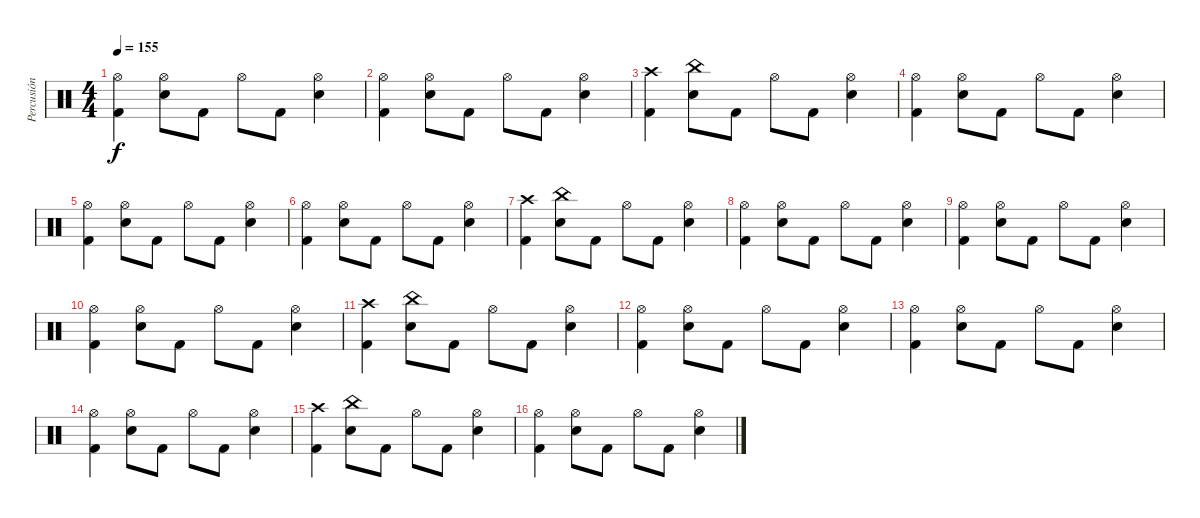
\track ("Percusión" "Percusión") {instrument percussion}
\staff {score}
\articulation defaults
\ts (4 4)
\tempo 155
\clef neutral
\ks c
("Hi-Hat (open)" "Kick (hit) 2").4{dy f} ("Hi-Hat (open)" "Electric Snare (hit)").8 "Kick (hit) 2".8 "Hi-Hat (open)".8 "Kick (hit) 2".8 ("Hi-Hat (open)" "Electric Snare (hit)").4 |
("Hi-Hat (open)" "Kick (hit) 2").4 ("Hi-Hat (open)" "Electric Snare (hit)").8 "Kick (hit) 2".8 "Hi-Hat (open)".8 "Kick (hit) 2".8 ("Hi-Hat (open)" "Electric Snare (hit)").4 |
("Crash high (hit)" "Kick (hit) 2").4 ("China (hit)" "Electric Snare (hit)").8 "Kick (hit) 2".8 "Hi-Hat (open)".8 "Kick (hit) 2".8 ("Hi-Hat (open)" "Electric Snare (hit)").4 |
("Hi-Hat (open)" "Kick (hit) 2").4 ("Hi-Hat (open)" "Electric Snare (hit)").8 "Kick (hit) 2".8 "Hi-Hat (open)".8 "Kick (hit) 2".8 ("Hi-Hat (open)" "Electric Snare (hit)").4 |
("Hi-Hat (open)" "Kick (hit) 2").4 ("Hi-Hat (open)" "Electric Snare (hit)").8 "Kick (hit) 2".8 "Hi-Hat (open)".8 "Kick (hit) 2".8 ("Hi-Hat (open)" "Electric Snare (hit)").4 |
("Hi-Hat (open)" "Kick (hit) 2").4 ("Hi-Hat (open)" "Electric Snare (hit)").8 "Kick (hit) 2".8 "Hi-Hat (open)".8 "Kick (hit) 2".8 ("Hi-Hat (open)" "Electric Snare (hit)").4 |
("Crash high (hit)" "Kick (hit) 2").4 ("China (hit)" "Electric Snare (hit)").8 "Kick (hit) 2".8 "Hi-Hat (open)".8 "Kick (hit) 2".8 ("Hi-Hat (open)" "Electric Snare (hit)").4 |
("Hi-Hat (open)" "Kick (hit) 2").4 ("Hi-Hat (open)" "Electric Snare (hit)").8 "Kick (hit) 2".8 "Hi-Hat (open)".8 "Kick (hit) 2".8 ("Hi-Hat (open)" "Electric Snare (hit)").4 |
("Hi-Hat (open)" "Kick (hit) 2").4 ("Hi-Hat (open)" "Electric Snare (hit)").8 "Kick (hit) 2".8 "Hi-Hat (open)".8 "Kick (hit) 2".8 ("Hi-Hat (open)" "Electric Snare (hit)").4 |
("Hi-Hat (open)" "Kick (hit) 2").4 ("Hi-Hat (open)" "Electric Snare (hit)").8 "Kick (hit) 2".8 "Hi-Hat (open)".8 "Kick (hit) 2".8 ("Hi-Hat (open)" "Electric Snare (hit)").4 |
("Crash high (hit)" "Kick (hit) 2").4 ("China (hit)" "Electric Snare (hit)").8 "Kick (hit) 2".8 "Hi-Hat (open)".8 "Kick (hit) 2".8 ("Hi-Hat (open)" "Electric Snare (hit)").4 |
("Hi-Hat (open)" "Kick (hit) 2").4 ("Hi-Hat (open)" "Electric Snare (hit)").8 "Kick (hit) 2".8 "Hi-Hat (open)".8 "Kick (hit) 2".8 ("Hi-Hat (open)" "Electric Snare (hit)").4 |
("Hi-Hat (open)" "Kick (hit) 2").4 ("Hi-Hat (open)" "Electric Snare (hit)").8 "Kick (hit) 2".8 "Hi-Hat (open)".8 "Kick (hit) 2".8 ("Hi-Hat (open)" "Electric Snare (hit)").4 |
("Hi-Hat (open)" "Kick (hit) 2").4 ("Hi-Hat (open)" "Electric Snare (hit)").8 "Kick (hit) 2".8 "Hi-Hat (open)".8 "Kick (hit) 2".8 ("Hi-Hat (open)" "Electric Snare (hit)").4 |
("Crash high (hit)" "Kick (hit) 2").4 ("China (hit)" "Electric Snare (hit)").8 "Kick (hit) 2".8 "Hi-Hat (open)".8 "Kick (hit) 2".8 ("Hi-Hat (open)" "Electric Snare (hit)").4 |
("Hi-Hat (open)" "Kick (hit) 2").4 ("Hi-Hat (open)" "Electric Snare (hit)").8 "Kick (hit) 2".8 "Hi-Hat (open)".8 "Kick (hit) 2".8 ("Hi-Hat (open)" "Electric Snare (hit)").4
